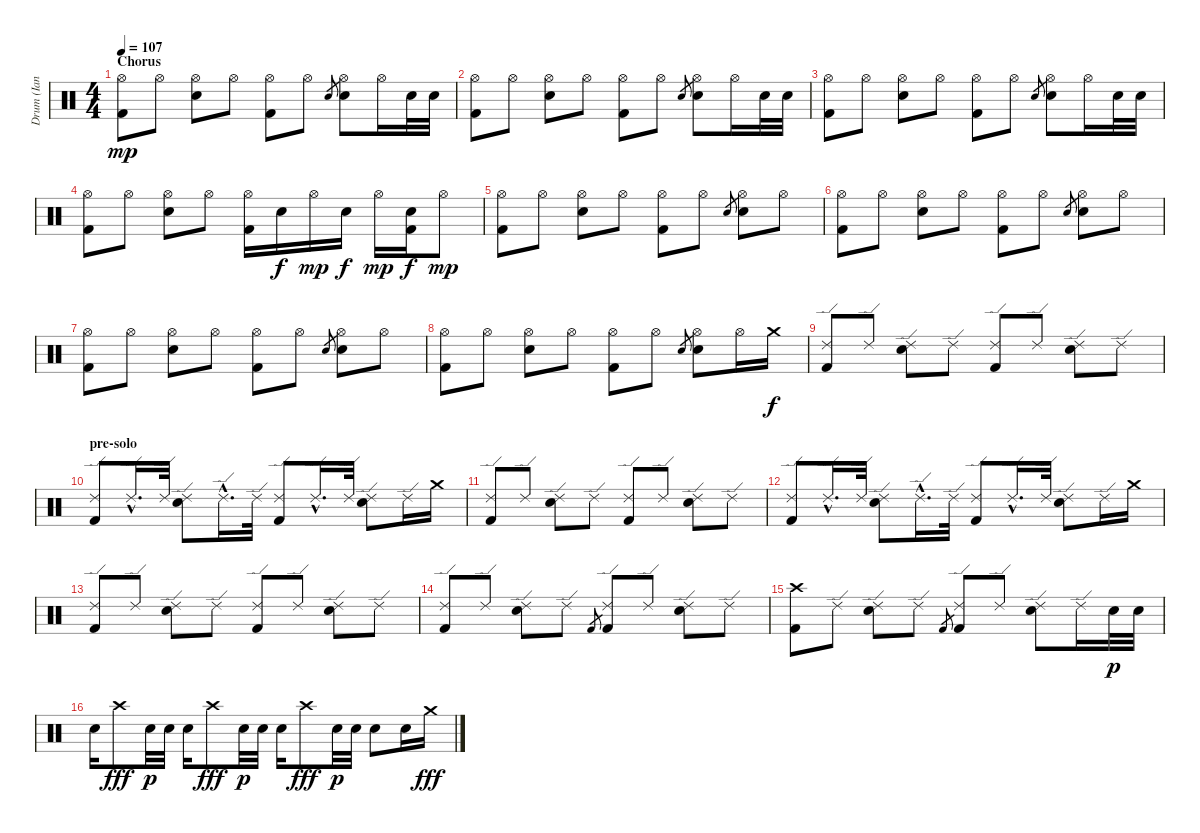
\track ("Drum (Ian Paice)" "Drum (Ian ") {instrument percussion}
\staff {score}
\articulation defaults
\ts (4 4)
\section ("" "Chorus")
\tempo 107
\clef neutral
\ks c
("Hi-Hat (open)" "Kick (hit) 2").8{dy mp} "Hi-Hat (open)".8 ("Hi-Hat (open)" "Snare (hit) 2").8 "Hi-Hat (open)".8 ("Hi-Hat (open)" "Kick (hit) 2").8 "Hi-Hat (open)".8 "Snare (hit) 2".8{gr} ("Hi-Hat (open)" "Snare (hit) 2").8 "Hi-Hat (open)".16 "Snare (hit) 2".32 "Snare (hit) 2".32 |
("Hi-Hat (open)" "Kick (hit) 2").8 "Hi-Hat (open)".8 ("Hi-Hat (open)" "Snare (hit) 2").8 "Hi-Hat (open)".8 ("Hi-Hat (open)" "Kick (hit) 2").8 "Hi-Hat (open)".8 "Snare (hit) 2".8{gr} ("Hi-Hat (open)" "Snare (hit) 2").8 "Hi-Hat (open)".16 "Snare (hit) 2".32 "Snare (hit) 2".32 |
("Hi-Hat (open)" "Kick (hit) 2").8 "Hi-Hat (open)".8 ("Hi-Hat (open)" "Snare (hit) 2").8 "Hi-Hat (open)".8 ("Hi-Hat (open)" "Kick (hit) 2").8 "Hi-Hat (open)".8 "Snare (hit) 2".8{gr} ("Hi-Hat (open)" "Snare (hit) 2").8 "Hi-Hat (open)".16 "Snare (hit) 2".32 "Snare (hit) 2".32 |
("Hi-Hat (open)" "Kick (hit) 2").8 "Hi-Hat (open)".8 ("Hi-Hat (open)" "Snare (hit) 2").8 "Hi-Hat (open)".8 ("Hi-Hat (open)" "Kick (hit) 2").16 "Snare (hit) 2".16{dy f} "Hi-Hat (open)".16{dy mp} "Snare (hit) 2".16{dy f} "Hi-Hat (open)".16{dy mp} ("Snare (hit) 2" "Kick (hit) 2").16{dy f} "Hi-Hat (open)".8{dy mp} |
("Hi-Hat (open)" "Kick (hit) 2").8 "Hi-Hat (open)".8 ("Hi-Hat (open)" "Snare (hit) 2").8 "Hi-Hat (open)".8 ("Hi-Hat (open)" "Kick (hit) 2").8 "Hi-Hat (open)".8 "Snare (hit) 2".8{gr} ("Hi-Hat (open)" "Snare (hit) 2").8 "Hi-Hat (open)".8 |
("Hi-Hat (open)" "Kick (hit) 2").8 "Hi-Hat (open)".8 ("Hi-Hat (open)" "Snare (hit) 2").8 "Hi-Hat (open)".8 ("Hi-Hat (open)" "Kick (hit) 2").8 "Hi-Hat (open)".8 "Snare (hit) 2".8{gr} ("Hi-Hat (open)" "Snare (hit) 2").8 "Hi-Hat (open)".8 |
("Hi-Hat (open)" "Kick (hit) 2").8 "Hi-Hat (open)".8 ("Hi-Hat (open)" "Snare (hit) 2").8 "Hi-Hat (open)".8 ("Hi-Hat (open)" "Kick (hit) 2").8 "Hi-Hat (open)".8 "Snare (hit) 2".8{gr} ("Hi-Hat (open)" "Snare (hit) 2").8 "Hi-Hat (open)".8 |
("Hi-Hat (open)" "Kick (hit) 2").8 "Hi-Hat (open)".8 ("Hi-Hat (open)" "Snare (hit) 2").8 "Hi-Hat (open)".8 ("Hi-Hat (open)" "Kick (hit) 2").8 "Hi-Hat (open)".8 "Snare (hit) 2".8{gr} ("Hi-Hat (open)" "Snare (hit) 2").8 "Hi-Hat (open)".16 "Crash medium (hit)".16{dy f} |
("Ride (edge) 2" "Kick (hit) 2").8 "Ride (edge) 2".8 ("Ride (edge) 2" "Snare (hit) 2").8 "Ride (edge) 2".8 ("Ride (edge) 2" "Kick (hit) 2").8 "Ride (edge) 2".8 ("Ride (edge) 2" "Snare (hit) 2").8 "Ride (edge) 2".8 |
\section ("" "pre-solo")
("Ride (edge) 2" "Kick (hit) 2").8 "Ride (edge) 2"{hac}.16{d} "Ride (edge) 2".32 ("Ride (edge) 2" "Snare (hit) 2").8 "Ride (edge) 2"{hac}.16{d} "Ride (edge) 2".32 ("Ride (edge) 2" "Kick (hit) 2").8 "Ride (edge) 2"{hac}.16{d} "Ride (edge) 2".32 ("Ride (edge) 2" "Snare (hit) 2").8 "Ride (edge) 2".16 "Crash medium (hit)".16 |
("Ride (edge) 2" "Kick (hit) 2").8 "Ride (edge) 2".8 ("Ride (edge) 2" "Snare (hit) 2").8 "Ride (edge) 2".8 ("Ride (edge) 2" "Kick (hit) 2").8 "Ride (edge) 2".8 ("Ride (edge) 2" "Snare (hit) 2").8 "Ride (edge) 2".8 |
("Ride (edge) 2" "Kick (hit) 2").8 "Ride (edge) 2"{hac}.16{d} "Ride (edge) 2".32 ("Ride (edge) 2" "Snare (hit) 2").8 "Ride (edge) 2"{hac}.16{d} "Ride (edge) 2".32 ("Ride (edge) 2" "Kick (hit) 2").8 "Ride (edge) 2"{hac}.16{d} "Ride (edge) 2".32 ("Ride (edge) 2" "Snare (hit) 2").8 "Ride (edge) 2".16 "Crash medium (hit)".16 |
("Ride (edge) 2" "Kick (hit) 2").8 "Ride (edge) 2".8 ("Ride (edge) 2" "Snare (hit) 2").8 "Ride (edge) 2".8 ("Ride (edge) 2" "Kick (hit) 2").8 "Ride (edge) 2".8 ("Ride (edge) 2" "Snare (hit) 2").8 "Ride (edge) 2".8 |
("Ride (edge) 2" "Kick (hit) 2").8 "Ride (edge) 2".8 ("Ride (edge) 2" "Snare (hit) 2").8 "Ride (edge) 2".8 "Kick (hit) 2".8{gr} ("Ride (edge) 2" "Kick (hit) 2").8 "Ride (edge) 2".8 ("Ride (edge) 2" "Snare (hit) 2").8 "Ride (edge) 2".8 |
("Crash high (hit)" "Kick (hit) 2").8 "Ride (edge) 2".8 ("Ride (edge) 2" "Snare (hit) 2").8 "Ride (edge) 2".8 "Kick (hit) 2".8{gr} ("Ride (edge) 2" "Kick (hit) 2").8 "Ride (edge) 2".8 ("Ride (edge) 2" "Snare (hit) 2").8 "Ride (edge) 2".16 "Snare (hit) 2".32{dy p} "Snare (hit) 2".32 |
"Snare (hit) 2".16 "Crash high (hit)".8{dy fff} "Snare (hit) 2".32{dy p} "Snare (hit) 2".32 "Snare (hit) 2".16 "Crash high (hit)".8{dy fff} "Snare (hit) 2".32{dy p} "Snare (hit) 2".32 "Snare (hit) 2".16 "Crash high (hit)".8{dy fff} "Snare (hit) 2".32{dy p} "Snare (hit) 2".32 "Snare (hit) 2".8 "Snare (hit) 2".16 "Crash medium (hit)".16{dy fff}
